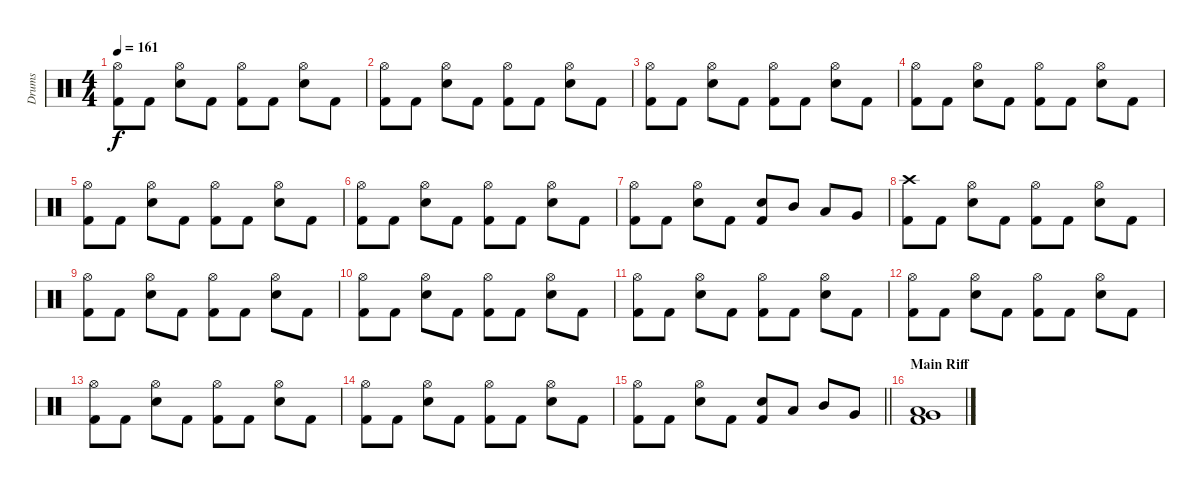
\track ("Drums" "Drums") {instrument percussion}
\staff {score}
\articulation defaults
\ts (4 4)
\tempo 161
\clef neutral
\ks c
("Hi-Hat (open)" "Kick (hit) 2").8{dy f} "Kick (hit) 2".8 ("Hi-Hat (open)" "Snare (hit) 2").8 "Kick (hit) 2".8 ("Hi-Hat (open)" "Kick (hit) 2").8 "Kick (hit) 2".8 ("Hi-Hat (open)" "Snare (hit) 2").8 "Kick (hit) 2".8 |
("Hi-Hat (open)" "Kick (hit) 2").8 "Kick (hit) 2".8 ("Hi-Hat (open)" "Snare (hit) 2").8 "Kick (hit) 2".8 ("Hi-Hat (open)" "Kick (hit) 2").8 "Kick (hit) 2".8 ("Hi-Hat (open)" "Snare (hit) 2").8 "Kick (hit) 2".8 |
("Hi-Hat (open)" "Kick (hit) 2").8 "Kick (hit) 2".8 ("Hi-Hat (open)" "Snare (hit) 2").8 "Kick (hit) 2".8 ("Hi-Hat (open)" "Kick (hit) 2").8 "Kick (hit) 2".8 ("Hi-Hat (open)" "Snare (hit) 2").8 "Kick (hit) 2".8 |
("Hi-Hat (open)" "Kick (hit) 2").8 "Kick (hit) 2".8 ("Hi-Hat (open)" "Snare (hit) 2").8 "Kick (hit) 2".8 ("Hi-Hat (open)" "Kick (hit) 2").8 "Kick (hit) 2".8 ("Hi-Hat (open)" "Snare (hit) 2").8 "Kick (hit) 2".8 |
("Hi-Hat (open)" "Kick (hit) 2").8 "Kick (hit) 2".8 ("Hi-Hat (open)" "Snare (hit) 2").8 "Kick (hit) 2".8 ("Hi-Hat (open)" "Kick (hit) 2").8 "Kick (hit) 2".8 ("Hi-Hat (open)" "Snare (hit) 2").8 "Kick (hit) 2".8 |
("Hi-Hat (open)" "Kick (hit) 2").8 "Kick (hit) 2".8 ("Hi-Hat (open)" "Snare (hit) 2").8 "Kick (hit) 2".8 ("Hi-Hat (open)" "Kick (hit) 2").8 "Kick (hit) 2".8 ("Hi-Hat (open)" "Snare (hit) 2").8 "Kick (hit) 2".8 |
("Hi-Hat (open)" "Kick (hit) 2").8 "Kick (hit) 2".8 ("Hi-Hat (open)" "Snare (hit) 2").8 "Kick (hit) 2".8 ("Snare (hit) 2" "Kick (hit) 2").8 "Mid Tom (hit)".8 "Low Tom (hit)".8 "Very Low Tom (hit)".8 |
("Crash high (hit)" "Kick (hit) 2").8 "Kick (hit) 2".8 ("Hi-Hat (open)" "Snare (hit) 2").8 "Kick (hit) 2".8 ("Hi-Hat (open)" "Kick (hit) 2").8 "Kick (hit) 2".8 ("Hi-Hat (open)" "Snare (hit) 2").8 "Kick (hit) 2".8 |
("Hi-Hat (open)" "Kick (hit) 2").8 "Kick (hit) 2".8 ("Hi-Hat (open)" "Snare (hit) 2").8 "Kick (hit) 2".8 ("Hi-Hat (open)" "Kick (hit) 2").8 "Kick (hit) 2".8 ("Hi-Hat (open)" "Snare (hit) 2").8 "Kick (hit) 2".8 |
("Hi-Hat (open)" "Kick (hit) 2").8 "Kick (hit) 2".8 ("Hi-Hat (open)" "Snare (hit) 2").8 "Kick (hit) 2".8 ("Hi-Hat (open)" "Kick (hit) 2").8 "Kick (hit) 2".8 ("Hi-Hat (open)" "Snare (hit) 2").8 "Kick (hit) 2".8 |
("Hi-Hat (open)" "Kick (hit) 2").8 "Kick (hit) 2".8 ("Hi-Hat (open)" "Snare (hit) 2").8 "Kick (hit) 2".8 ("Hi-Hat (open)" "Kick (hit) 2").8 "Kick (hit) 2".8 ("Hi-Hat (open)" "Snare (hit) 2").8 "Kick (hit) 2".8 |
("Hi-Hat (open)" "Kick (hit) 2").8 "Kick (hit) 2".8 ("Hi-Hat (open)" "Snare (hit) 2").8 "Kick (hit) 2".8 ("Hi-Hat (open)" "Kick (hit) 2").8 "Kick (hit) 2".8 ("Hi-Hat (open)" "Snare (hit) 2").8 "Kick (hit) 2".8 |
("Hi-Hat (open)" "Kick (hit) 2").8 "Kick (hit) 2".8 ("Hi-Hat (open)" "Snare (hit) 2").8 "Kick (hit) 2".8 ("Hi-Hat (open)" "Kick (hit) 2").8 "Kick (hit) 2".8 ("Hi-Hat (open)" "Snare (hit) 2").8 "Kick (hit) 2".8 |
("Hi-Hat (open)" "Kick (hit) 2").8 "Kick (hit) 2".8 ("Hi-Hat (open)" "Snare (hit) 2").8 "Kick (hit) 2".8 ("Hi-Hat (open)" "Kick (hit) 2").8 "Kick (hit) 2".8 ("Hi-Hat (open)" "Snare (hit) 2").8 "Kick (hit) 2".8 |
\barLineRight lightlight
("Hi-Hat (open)" "Kick (hit) 2").8 "Kick (hit) 2".8 ("Hi-Hat (open)" "Snare (hit) 2").8 "Kick (hit) 2".8 ("Snare (hit) 2" "Kick (hit) 2").8 "Low Tom (hit)".8 "Mid Tom (hit)".8 "Very Low Tom (hit)".8 |
\section ("" "Main Riff")
("Low Tom (hit)" "Very Low Tom (hit)" "Kick (hit) 2").1
